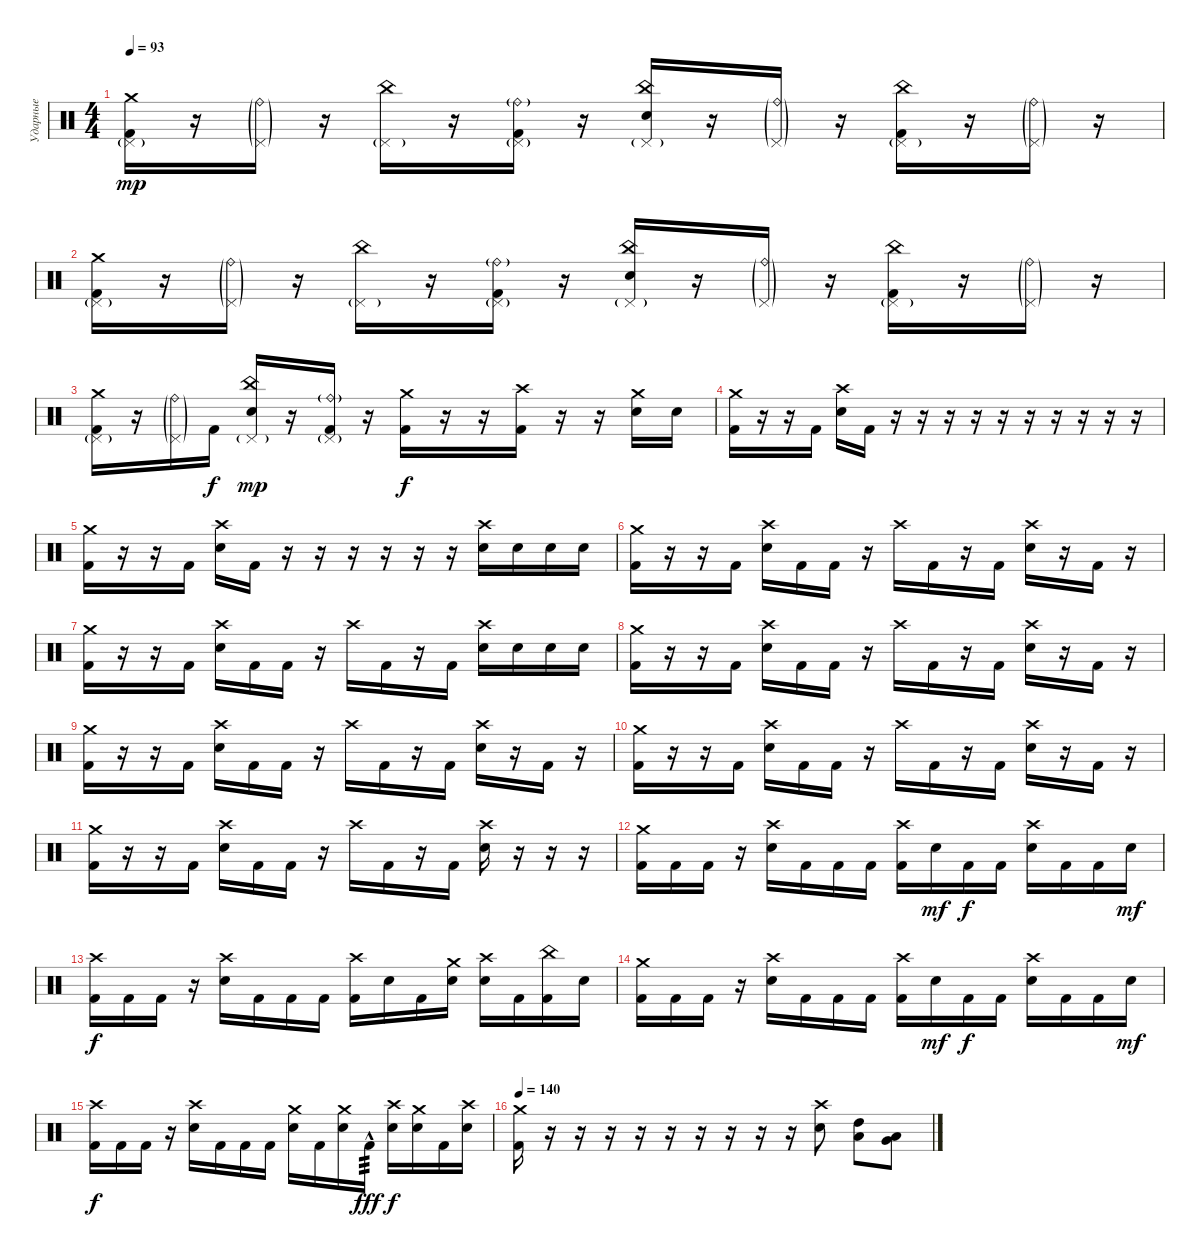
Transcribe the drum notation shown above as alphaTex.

\track ("Ударные" "Ударные") {instrument percussion}
\staff {score}
\articulation defaults
\ts (4 4)
\tempo 93
\clef neutral
\ks c
("Crash medium (hit)" "Pedal Hi-Hat (hit)"{g} "Kick (hit) 2").16{dy mp} r.16 ("Ride (bell)"{g} "Pedal Hi-Hat (hit)"{g}).16 r.16 ("China (hit)" "Pedal Hi-Hat (hit)"{g}).16 r.16 ("Ride (bell)"{g} "Pedal Hi-Hat (hit)"{g} "Kick (hit) 2").16 r.16 ("China (hit)" "Pedal Hi-Hat (hit)"{g} "Electric Snare (hit)").16 r.16 ("Ride (bell)"{g} "Pedal Hi-Hat (hit)"{g}).16 r.16 ("China (hit)" "Pedal Hi-Hat (hit)"{g} "Kick (hit) 2").16 r.16 ("Ride (bell)"{g} "Pedal Hi-Hat (hit)"{g}).16 r.16 |
("Crash medium (hit)" "Pedal Hi-Hat (hit)"{g} "Kick (hit) 2").16 r.16 ("Ride (bell)"{g} "Pedal Hi-Hat (hit)"{g}).16 r.16 ("China (hit)" "Pedal Hi-Hat (hit)"{g}).16 r.16 ("Ride (bell)"{g} "Pedal Hi-Hat (hit)"{g} "Kick (hit) 2").16 r.16 ("China (hit)" "Pedal Hi-Hat (hit)"{g} "Electric Snare (hit)").16 r.16 ("Ride (bell)"{g} "Pedal Hi-Hat (hit)"{g}).16 r.16 ("China (hit)" "Pedal Hi-Hat (hit)"{g} "Kick (hit) 2").16 r.16 ("Ride (bell)"{g} "Pedal Hi-Hat (hit)"{g}).16 r.16 |
("Crash medium (hit)" "Pedal Hi-Hat (hit)"{g} "Kick (hit) 2").16 r.16 ("Ride (bell)"{g} "Pedal Hi-Hat (hit)"{g}).16 "Kick (hit) 2".16{dy f} ("China (hit)" "Pedal Hi-Hat (hit)"{g} "Electric Snare (hit)").16{dy mp} r.16 ("Ride (bell)"{g} "Pedal Hi-Hat (hit)"{g} "Kick (hit) 2").16 r.16 ("Crash medium (hit)" "Kick (hit) 2").16{dy f} r.16 r.16 ("Crash high (hit)" "Kick (hit) 2").16 r.16 r.16 ("Crash medium (hit)" "Electric Snare (hit)").16 "Electric Snare (hit)".16 |
("Crash medium (hit)" "Kick (hit) 2").16 r.16 r.16 "Kick (hit) 2".16 ("Crash high (hit)" "Electric Snare (hit)").16 "Kick (hit) 2".16 r.16 r.16 r.16 r.16 r.16 r.16 r.16 r.16 r.16 r.16 |
("Crash medium (hit)" "Kick (hit) 2").16 r.16 r.16 "Kick (hit) 2".16 ("Crash high (hit)" "Electric Snare (hit)").16 "Kick (hit) 2".16 r.16 r.16 r.16 r.16 r.16 r.16 ("Crash high (hit)" "Electric Snare (hit)").16 "Electric Snare (hit)".16 "Electric Snare (hit)".16 "Electric Snare (hit)".16 |
("Crash medium (hit)" "Kick (hit) 2").16 r.16 r.16 "Kick (hit) 2".16 ("Crash high (hit)" "Electric Snare (hit)").16 "Kick (hit) 2".16 "Kick (hit) 2".16 r.16 "Crash high (hit)".16 "Kick (hit) 2".16 r.16 "Kick (hit) 2".16 ("Crash high (hit)" "Electric Snare (hit)").16 r.16 "Kick (hit) 2".16 r.16 |
("Crash medium (hit)" "Kick (hit) 2").16 r.16 r.16 "Kick (hit) 2".16 ("Crash high (hit)" "Electric Snare (hit)").16 "Kick (hit) 2".16 "Kick (hit) 2".16 r.16 "Crash high (hit)".16 "Kick (hit) 2".16 r.16 "Kick (hit) 2".16 ("Crash high (hit)" "Electric Snare (hit)").16 "Electric Snare (hit)".16 "Electric Snare (hit)".16 "Electric Snare (hit)".16 |
("Crash medium (hit)" "Kick (hit) 2").16 r.16 r.16 "Kick (hit) 2".16 ("Crash high (hit)" "Electric Snare (hit)").16 "Kick (hit) 2".16 "Kick (hit) 2".16 r.16 "Crash high (hit)".16 "Kick (hit) 2".16 r.16 "Kick (hit) 2".16 ("Crash high (hit)" "Electric Snare (hit)").16 r.16 "Kick (hit) 2".16 r.16 |
("Crash medium (hit)" "Kick (hit) 2").16 r.16 r.16 "Kick (hit) 2".16 ("Crash high (hit)" "Electric Snare (hit)").16 "Kick (hit) 2".16 "Kick (hit) 2".16 r.16 "Crash high (hit)".16 "Kick (hit) 2".16 r.16 "Kick (hit) 2".16 ("Crash high (hit)" "Electric Snare (hit)").16 r.16 "Kick (hit) 2".16 r.16 |
("Crash medium (hit)" "Kick (hit) 2").16 r.16 r.16 "Kick (hit) 2".16 ("Crash high (hit)" "Electric Snare (hit)").16 "Kick (hit) 2".16 "Kick (hit) 2".16 r.16 "Crash high (hit)".16 "Kick (hit) 2".16 r.16 "Kick (hit) 2".16 ("Crash high (hit)" "Electric Snare (hit)").16 r.16 "Kick (hit) 2".16 r.16 |
("Crash medium (hit)" "Kick (hit) 2").16 r.16 r.16 "Kick (hit) 2".16 ("Crash high (hit)" "Electric Snare (hit)").16 "Kick (hit) 2".16 "Kick (hit) 2".16 r.16 "Crash high (hit)".16 "Kick (hit) 2".16 r.16 "Kick (hit) 2".16 ("Crash high (hit)" "Electric Snare (hit)").16 r.16 r.16 r.16 |
("Crash medium (hit)" "Kick (hit) 2").16 "Kick (hit) 2".16 "Kick (hit) 2".16 r.16 ("Crash high (hit)" "Electric Snare (hit)").16 "Kick (hit) 2".16 "Kick (hit) 2".16 "Kick (hit) 2".16 ("Crash high (hit)" "Kick (hit) 2").16 "Electric Snare (hit)".16{dy mf} "Kick (hit) 2".16{dy f} "Kick (hit) 2".16 ("Crash high (hit)" "Electric Snare (hit)").16 "Kick (hit) 2".16 "Kick (hit) 2".16 "Electric Snare (hit)".16{dy mf} |
("Crash high (hit)" "Kick (hit) 2").16{dy f} "Kick (hit) 2".16 "Kick (hit) 2".16 r.16 ("Crash high (hit)" "Electric Snare (hit)").16 "Kick (hit) 2".16 "Kick (hit) 2".16 "Kick (hit) 2".16 ("Crash high (hit)" "Kick (hit) 2").16 "Electric Snare (hit)".16 "Kick (hit) 2".16 ("Crash medium (hit)" "Electric Snare (hit)").16 ("Crash high (hit)" "Electric Snare (hit)").16 "Kick (hit) 2".16 ("China (hit)" "Kick (hit) 2").16 "Electric Snare (hit)".16 |
("Crash medium (hit)" "Kick (hit) 2").16 "Kick (hit) 2".16 "Kick (hit) 2".16 r.16 ("Crash high (hit)" "Electric Snare (hit)").16 "Kick (hit) 2".16 "Kick (hit) 2".16 "Kick (hit) 2".16 ("Crash high (hit)" "Kick (hit) 2").16 "Electric Snare (hit)".16{dy mf} "Kick (hit) 2".16{dy f} "Kick (hit) 2".16 ("Crash high (hit)" "Electric Snare (hit)").16 "Kick (hit) 2".16 "Kick (hit) 2".16 "Electric Snare (hit)".16{dy mf} |
("Crash high (hit)" "Kick (hit) 2").16{dy f} "Kick (hit) 2".16 "Kick (hit) 2".16 r.16 ("Crash high (hit)" "Electric Snare (hit)").16 "Kick (hit) 2".16 "Kick (hit) 2".16 "Kick (hit) 2".16 ("Crash medium (hit)" "Electric Snare (hit)").16 "Kick (hit) 2".16 ("Crash medium (hit)" "Electric Snare (hit)").16 "Kick (hit) 2"{hac}.16{tp 3 dy fff} ("Crash high (hit)" "Electric Snare (hit)").16{dy f} ("Crash medium (hit)" "Electric Snare (hit)").16 "Kick (hit) 2".16 ("Crash high (hit)" "Electric Snare (hit)").16 |
\tempo 140
("Crash medium (hit)" "Kick (hit) 2").16 r.16 r.16 r.16 r.16 r.16 r.16 r.16 r.16 r.16 ("Crash high (hit)" "Electric Snare (hit)").8 ("High Tom (hit)" "Low Tom (hit)").8 ("Low Tom (hit)" "Very Low Tom (hit)").8
